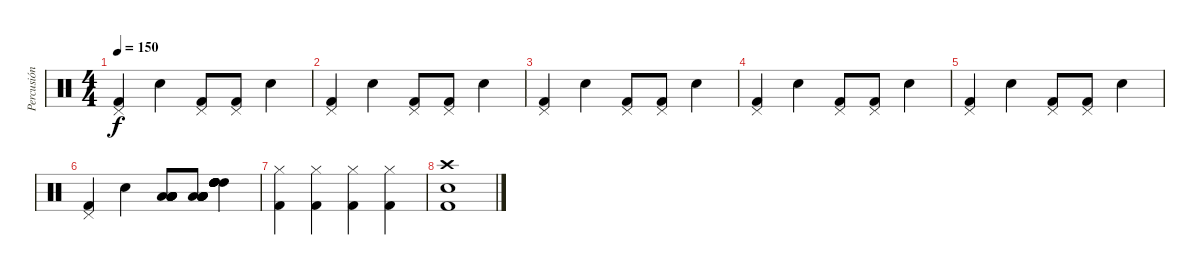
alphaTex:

\track ("Percusión" "Percusión") {instrument percussion}
\staff {score}
\articulation defaults
\ts (4 4)
\tempo 150
\clef neutral
\ks c
("Pedal Hi-Hat (hit)" "Kick (hit) 2").4{dy f} "Snare (hit) 2".4 ("Pedal Hi-Hat (hit)" "Kick (hit) 2").8 ("Pedal Hi-Hat (hit)" "Kick (hit) 2").8 "Snare (hit) 2".4 |
("Pedal Hi-Hat (hit)" "Kick (hit) 2").4 "Snare (hit) 2".4 ("Pedal Hi-Hat (hit)" "Kick (hit) 2").8 ("Pedal Hi-Hat (hit)" "Kick (hit) 2").8 "Snare (hit) 2".4 |
("Pedal Hi-Hat (hit)" "Kick (hit) 2").4 "Snare (hit) 2".4 ("Pedal Hi-Hat (hit)" "Kick (hit) 2").8 ("Pedal Hi-Hat (hit)" "Kick (hit) 2").8 "Snare (hit) 2".4 |
("Pedal Hi-Hat (hit)" "Kick (hit) 2").4 "Snare (hit) 2".4 ("Pedal Hi-Hat (hit)" "Kick (hit) 2").8 ("Pedal Hi-Hat (hit)" "Kick (hit) 2").8 "Snare (hit) 2".4 |
("Pedal Hi-Hat (hit)" "Kick (hit) 2").4 "Snare (hit) 2".4 ("Pedal Hi-Hat (hit)" "Kick (hit) 2").8 ("Pedal Hi-Hat (hit)" "Kick (hit) 2").8 "Snare (hit) 2".4 |
("Pedal Hi-Hat (hit)" "Kick (hit) 2").4 "Snare (hit) 2".4 ("Low Tom (hit)" "Low Tom (hit)" "Low Tom (hit)" "Low Tom (hit)" "Low Tom (hit)" "Low Tom (hit)").8 ("Low Tom (hit)" "Low Tom (hit)" "Low Tom (hit)" "Low Tom (hit)" "Low Tom (hit)" "Low Tom (hit)").8 ("High Tom (hit)" "High Tom (hit)" "High Tom (hit)" "High Tom (hit)" "High Tom (hit)" "High Tom (hit)").4 |
("Hi-Hat (closed)" "Kick (hit) 2").4 ("Hi-Hat (closed)" "Kick (hit) 2").4 ("Hi-Hat (closed)" "Kick (hit) 2").4 ("Hi-Hat (closed)" "Kick (hit) 2").4 |
("Crash high (hit)" "Snare (hit) 2" "Kick (hit) 2").1
